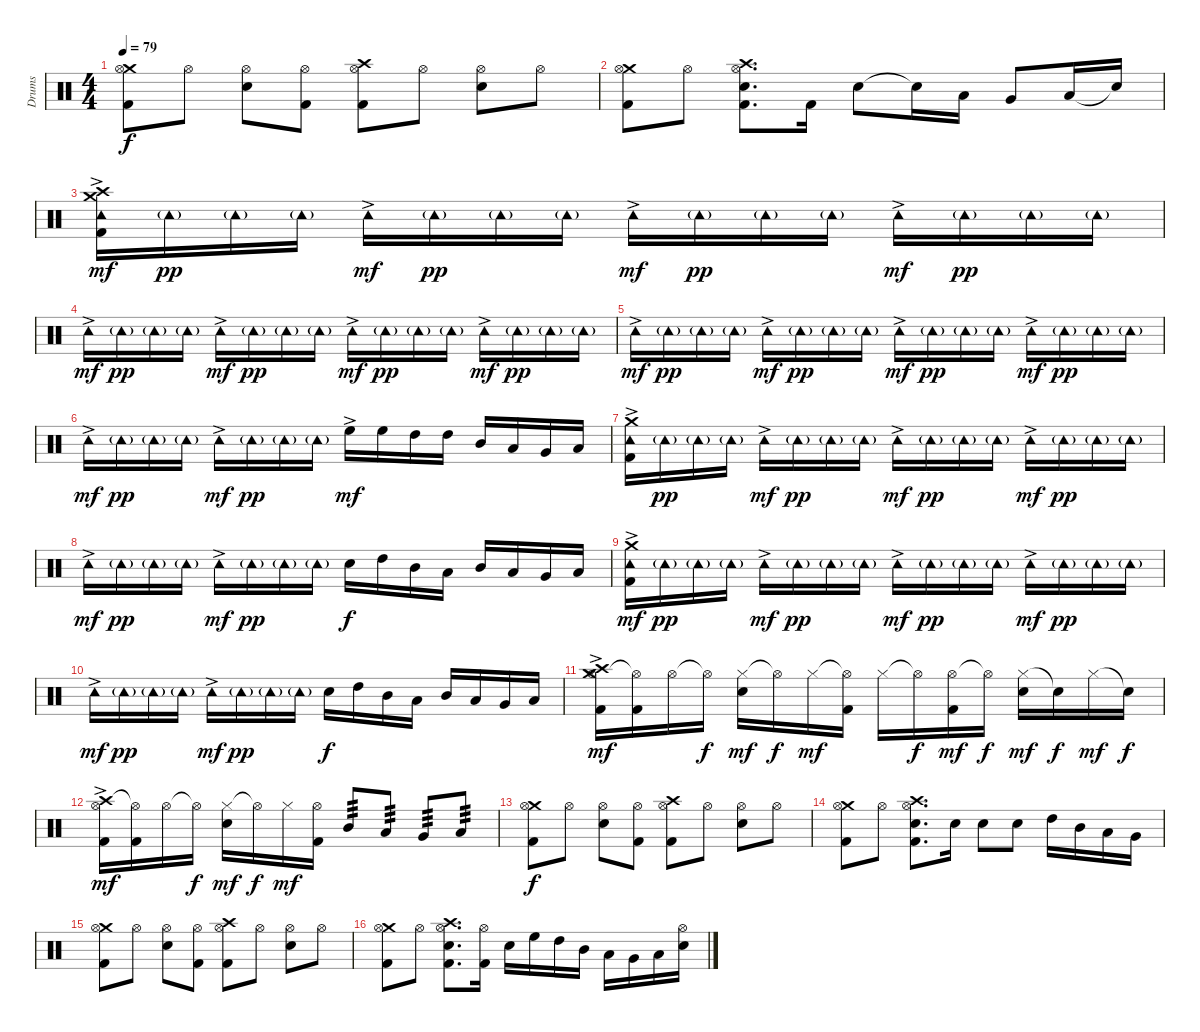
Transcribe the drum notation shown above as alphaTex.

\track ("Drums" "Drums") {instrument percussion}
\staff {score}
\articulation defaults
\ts (4 4)
\tempo 79
\clef neutral
\ks c
("Crash medium (hit)" "Hi-Hat (open)" "Kick (hit) 2").8{dy f} "Hi-Hat (open)".8 ("Hi-Hat (open)" "Electric Snare (hit)").8 ("Hi-Hat (open)" "Kick (hit) 2").8 ("Crash high (hit)" "Hi-Hat (open)" "Kick (hit) 2").8 "Hi-Hat (open)".8 ("Hi-Hat (open)" "Electric Snare (hit)").8 "Hi-Hat (open)".8 |
("Crash medium (hit)" "Hi-Hat (open)" "Kick (hit) 2").8 "Hi-Hat (open)".8 ("Crash high (hit)" "Hi-Hat (open)" "Electric Snare (hit)" "Kick (hit) 2").8{d} "Kick (hit) 2".16 "Electric Snare (hit)".8 "Snare (hit)"{t}.16 "Low Tom (hit)".16 "Very Low Tom (hit)".8 "Low Floor Tom (hit)".16 "Snare (hit)"{t}.16 |
("Crash medium (hit)" "Crash high (hit)" "Tambourine (hit)"{ac} "Kick (hit) 2").16{dy mf} "Tambourine (hit)"{g}.16{dy pp} "Tambourine (hit)"{g}.16 "Tambourine (hit)"{g}.16 "Tambourine (hit)"{ac}.16{dy mf} "Tambourine (hit)"{g}.16{dy pp} "Tambourine (hit)"{g}.16 "Tambourine (hit)"{g}.16 "Tambourine (hit)"{ac}.16{dy mf} "Tambourine (hit)"{g}.16{dy pp} "Tambourine (hit)"{g}.16 "Tambourine (hit)"{g}.16 "Tambourine (hit)"{ac}.16{dy mf} "Tambourine (hit)"{g}.16{dy pp} "Tambourine (hit)"{g}.16 "Tambourine (hit)"{g}.16 |
"Tambourine (hit)"{ac}.16{dy mf} "Tambourine (hit)"{g}.16{dy pp} "Tambourine (hit)"{g}.16 "Tambourine (hit)"{g}.16 "Tambourine (hit)"{ac}.16{dy mf} "Tambourine (hit)"{g}.16{dy pp} "Tambourine (hit)"{g}.16 "Tambourine (hit)"{g}.16 "Tambourine (hit)"{ac}.16{dy mf} "Tambourine (hit)"{g}.16{dy pp} "Tambourine (hit)"{g}.16 "Tambourine (hit)"{g}.16 "Tambourine (hit)"{ac}.16{dy mf} "Tambourine (hit)"{g}.16{dy pp} "Tambourine (hit)"{g}.16 "Tambourine (hit)"{g}.16 |
"Tambourine (hit)"{ac}.16{dy mf} "Tambourine (hit)"{g}.16{dy pp} "Tambourine (hit)"{g}.16 "Tambourine (hit)"{g}.16 "Tambourine (hit)"{ac}.16{dy mf} "Tambourine (hit)"{g}.16{dy pp} "Tambourine (hit)"{g}.16 "Tambourine (hit)"{g}.16 "Tambourine (hit)"{ac}.16{dy mf} "Tambourine (hit)"{g}.16{dy pp} "Tambourine (hit)"{g}.16 "Tambourine (hit)"{g}.16 "Tambourine (hit)"{ac}.16{dy mf} "Tambourine (hit)"{g}.16{dy pp} "Tambourine (hit)"{g}.16 "Tambourine (hit)"{g}.16 |
"Tambourine (hit)"{ac}.16{dy mf} "Tambourine (hit)"{g}.16{dy pp} "Tambourine (hit)"{g}.16 "Tambourine (hit)"{g}.16 "Tambourine (hit)"{ac}.16{dy mf} "Tambourine (hit)"{g}.16{dy pp} "Tambourine (hit)"{g}.16 "Tambourine (hit)"{g}.16 "High Floor Tom (hit)"{ac}.16{dy mf} "High Floor Tom (hit)".16 "High Tom (hit)".16 "High Tom (hit)".16 "Mid Tom (hit)".16 "Low Tom (hit)".16 "Very Low Tom (hit)".16 "Low Floor Tom (hit)".16 |
("Crash medium (hit)" "Tambourine (hit)"{ac} "Kick (hit) 2").16 "Tambourine (hit)"{g}.16{dy pp} "Tambourine (hit)"{g}.16 "Tambourine (hit)"{g}.16 "Tambourine (hit)"{ac}.16{dy mf} "Tambourine (hit)"{g}.16{dy pp} "Tambourine (hit)"{g}.16 "Tambourine (hit)"{g}.16 "Tambourine (hit)"{ac}.16{dy mf} "Tambourine (hit)"{g}.16{dy pp} "Tambourine (hit)"{g}.16 "Tambourine (hit)"{g}.16 "Tambourine (hit)"{ac}.16{dy mf} "Tambourine (hit)"{g}.16{dy pp} "Tambourine (hit)"{g}.16 "Tambourine (hit)"{g}.16 |
"Tambourine (hit)"{ac}.16{dy mf} "Tambourine (hit)"{g}.16{dy pp} "Tambourine (hit)"{g}.16 "Tambourine (hit)"{g}.16 "Tambourine (hit)"{ac}.16{dy mf} "Tambourine (hit)"{g}.16{dy pp} "Tambourine (hit)"{g}.16 "Tambourine (hit)"{g}.16 "Electric Snare (hit)".16{dy f} "High Tom (hit)".16 "Mid Tom (hit)".16 "Low Tom (hit)".16 "Mid Tom (hit)".16 "Low Tom (hit)".16 "Very Low Tom (hit)".16 "Low Floor Tom (hit)".16 |
("Crash medium (hit)" "Tambourine (hit)"{ac} "Kick (hit) 2").16{dy mf} "Tambourine (hit)"{g}.16{dy pp} "Tambourine (hit)"{g}.16 "Tambourine (hit)"{g}.16 "Tambourine (hit)"{ac}.16{dy mf} "Tambourine (hit)"{g}.16{dy pp} "Tambourine (hit)"{g}.16 "Tambourine (hit)"{g}.16 "Tambourine (hit)"{ac}.16{dy mf} "Tambourine (hit)"{g}.16{dy pp} "Tambourine (hit)"{g}.16 "Tambourine (hit)"{g}.16 "Tambourine (hit)"{ac}.16{dy mf} "Tambourine (hit)"{g}.16{dy pp} "Tambourine (hit)"{g}.16 "Tambourine (hit)"{g}.16 |
"Tambourine (hit)"{ac}.16{dy mf} "Tambourine (hit)"{g}.16{dy pp} "Tambourine (hit)"{g}.16 "Tambourine (hit)"{g}.16 "Tambourine (hit)"{ac}.16{dy mf} "Tambourine (hit)"{g}.16{dy pp} "Tambourine (hit)"{g}.16 "Tambourine (hit)"{g}.16 "Electric Snare (hit)".16{dy f} "High Tom (hit)".16 "Mid Tom (hit)".16 "Low Tom (hit)".16 "Mid Tom (hit)".16 "Low Tom (hit)".16 "Very Low Tom (hit)".16 "Low Floor Tom (hit)".16 |
("Crash medium (hit)" "Crash high (hit)" "Hi-Hat (open)"{ac} "Kick (hit) 2").16{dy mf} ("Hi-Hat (open)"{t} "Kick (hit) 2").16 "Hi-Hat (open)".16 "Hi-Hat (open)"{t}.16{dy f} ("Hi-Hat (closed)" "Electric Snare (hit)").16{dy mf} "Hi-Hat (open)"{t}.16{dy f} "Hi-Hat (closed)".16{dy mf} ("Hi-Hat (open)"{t} "Kick (hit) 2").16 "Hi-Hat (closed)".16 "Hi-Hat (open)"{t}.16{dy f} ("Hi-Hat (open)" "Kick (hit) 2").16{dy mf} "Hi-Hat (open)"{t}.16{dy f} ("Hi-Hat (closed)" "Electric Snare (hit)").16{dy mf} "Snare (hit)"{t}.16{dy f} "Hi-Hat (closed)".16{dy mf} "Snare (hit)"{t}.16{dy f} |
("Crash high (hit)" "Hi-Hat (open)"{ac} "Kick (hit) 2").16{dy mf} ("Hi-Hat (open)"{t} "Kick (hit) 2").16 "Hi-Hat (open)".16 "Hi-Hat (open)"{t}.16{dy f} ("Hi-Hat (closed)" "Electric Snare (hit)").16{dy mf} "Hi-Hat (open)"{t}.16{dy f} "Hi-Hat (closed)".16{dy mf} ("Hi-Hat (open)" "Kick (hit) 2").16 "Mid Tom (hit)".8{tp 3} "Low Tom (hit)".8{tp 3} "Very Low Tom (hit)".8{tp 3} "Low Floor Tom (hit)".8{tp 3} |
("Crash medium (hit)" "Hi-Hat (open)" "Kick (hit) 2").8{dy f} "Hi-Hat (open)".8 ("Hi-Hat (open)" "Electric Snare (hit)").8 ("Hi-Hat (open)" "Kick (hit) 2").8 ("Crash high (hit)" "Hi-Hat (open)" "Kick (hit) 2").8 "Hi-Hat (open)".8 ("Hi-Hat (open)" "Electric Snare (hit)").8 "Hi-Hat (open)".8 |
("Crash medium (hit)" "Hi-Hat (open)" "Kick (hit) 2").8 "Hi-Hat (open)".8 ("Crash high (hit)" "Hi-Hat (open)" "Electric Snare (hit)" "Kick (hit) 2").8{d} "Electric Snare (hit)".16 "Electric Snare (hit)".8 "Electric Snare (hit)".8 "High Tom (hit)".16 "Mid Tom (hit)".16 "Low Tom (hit)".16 "Very Low Tom (hit)".16 |
("Crash medium (hit)" "Hi-Hat (open)" "Kick (hit) 2").8 "Hi-Hat (open)".8 ("Hi-Hat (open)" "Electric Snare (hit)").8 ("Hi-Hat (open)" "Kick (hit) 2").8 ("Crash high (hit)" "Hi-Hat (open)" "Kick (hit) 2").8 "Hi-Hat (open)".8 ("Hi-Hat (open)" "Electric Snare (hit)").8 "Hi-Hat (open)".8 |
("Crash medium (hit)" "Hi-Hat (open)" "Kick (hit) 2").8 "Hi-Hat (open)".8 ("Crash high (hit)" "Hi-Hat (open)" "Electric Snare (hit)" "Kick (hit) 2").8{d} ("Hi-Hat (open)" "Kick (hit) 2").16 "Electric Snare (hit)".16 "High Floor Tom (hit)".16 "High Tom (hit)".16 "Mid Tom (hit)".16 "Low Tom (hit)".16 "Very Low Tom (hit)".16 "Low Floor Tom (hit)".16 ("Hi-Hat (open)" "Electric Snare (hit)").16
